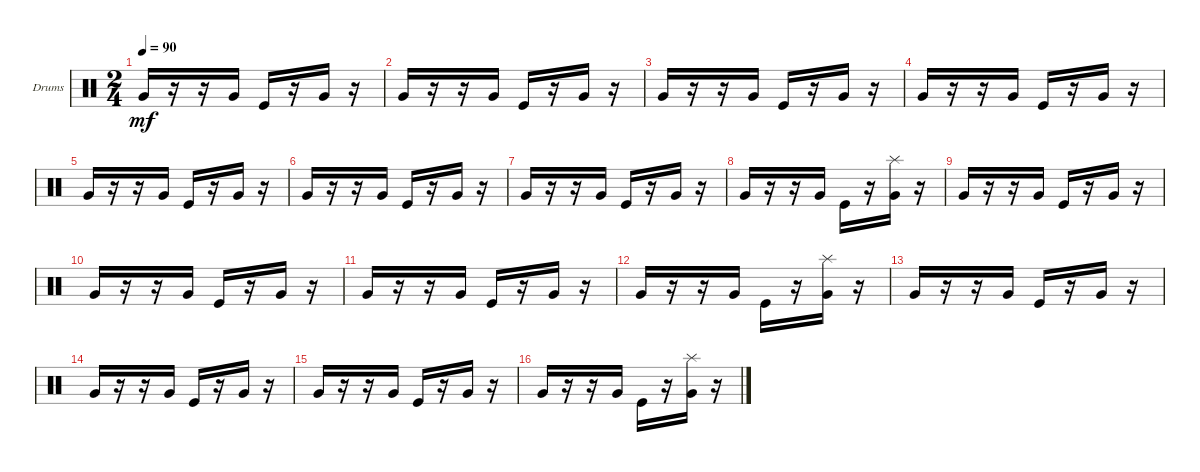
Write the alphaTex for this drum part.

\defaultSystemsLayout 4
\bracketExtendMode groupsimilarinstruments
\firstSystemTrackNameOrientation horizontal
\otherSystemsTrackNameOrientation horizontal
\track ("Drumkit" "Drums") {instrument percussion}
\staff {score}
\articulation defaults
\ts (2 4)
\tempo 90
\clef neutral
\ks c "Very Low Tom (hit)".16{dy mf}
r.16 r.16 "Very Low Tom (hit)".16 "Kick (hit)".16 r.16 "Very Low Tom (hit)".16 r.16 |
"Very Low Tom (hit)".16 r.16 r.16 "Very Low Tom (hit)".16 "Kick (hit)".16 r.16 "Very Low Tom (hit)".16 r.16 |
"Very Low Tom (hit)".16 r.16 r.16 "Very Low Tom (hit)".16 "Kick (hit)".16 r.16 "Very Low Tom (hit)".16 r.16 |
"Very Low Tom (hit)".16 r.16 r.16 "Very Low Tom (hit)".16 "Kick (hit)".16 r.16 "Very Low Tom (hit)".16 r.16 |
\scale
0.474178 "Very Low Tom (hit)".16 r.16 r.16 "Very Low Tom (hit)".16 "Kick (hit)".16 r.16 "Very Low Tom (hit)".16 r.16 |
\scale
0.262911 "Very Low Tom (hit)".16 r.16 r.16 "Very Low Tom (hit)".16 "Kick (hit)".16 r.16 "Very Low Tom (hit)".16 r.16 |
\scale
0.262911 "Very Low Tom (hit)".16 r.16 r.16 "Very Low Tom (hit)".16 "Kick (hit)".16 r.16 "Very Low Tom (hit)".16 r.16 |
\scale
0.333333 "Very Low Tom (hit)".16 r.16 r.16 "Very Low Tom (hit)".16 "Kick (hit)".16 r.16 ("Very Low Tom (hit)" "Splash (hit)").16 r.16 |
\scale
0.333333 "Very Low Tom (hit)".16 r.16 r.16 "Very Low Tom (hit)".16 "Kick (hit)".16 r.16 "Very Low Tom (hit)".16 r.16 |
\scale
0.333333 "Very Low Tom (hit)".16 r.16 r.16 "Very Low Tom (hit)".16 "Kick (hit)".16 r.16 "Very Low Tom (hit)".16 r.16 |
\scale
0.333333 "Very Low Tom (hit)".16 r.16 r.16 "Very Low Tom (hit)".16 "Kick (hit)".16 r.16 "Very Low Tom (hit)".16 r.16 |
\scale
0.333333 "Very Low Tom (hit)".16 r.16 r.16 "Very Low Tom (hit)".16 "Kick (hit)".16 r.16 ("Very Low Tom (hit)" "Splash (hit)").16 r.16 |
\scale
0.333333 "Very Low Tom (hit)".16 r.16 r.16 "Very Low Tom (hit)".16 "Kick (hit)".16 r.16 "Very Low Tom (hit)".16 r.16 |
\scale
0.333333 "Very Low Tom (hit)".16 r.16 r.16 "Very Low Tom (hit)".16 "Kick (hit)".16 r.16 "Very Low Tom (hit)".16 r.16 |
\scale
0.333333 "Very Low Tom (hit)".16 r.16 r.16 "Very Low Tom (hit)".16 "Kick (hit)".16 r.16 "Very Low Tom (hit)".16 r.16 |
\scale
0.333333 "Very Low Tom (hit)".16 r.16 r.16 "Very Low Tom (hit)".16 "Kick (hit)".16 r.16 ("Very Low Tom (hit)" "Splash (hit)").16 r.16
